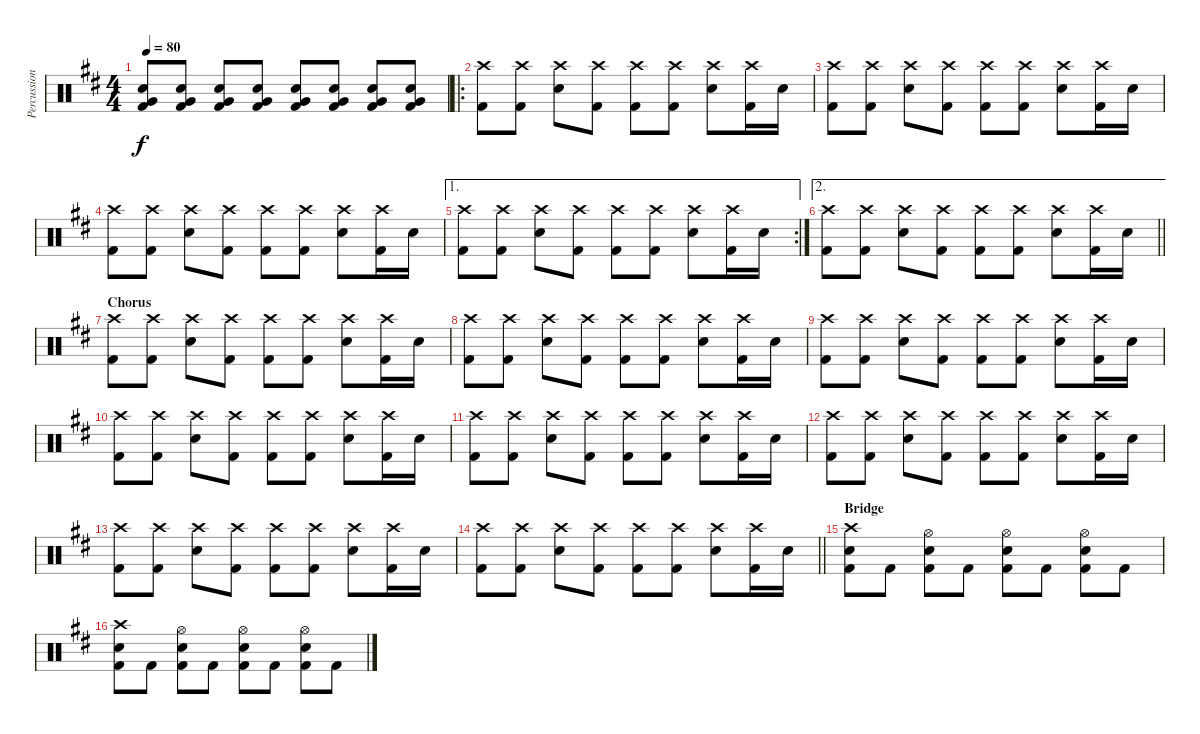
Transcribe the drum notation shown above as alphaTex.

\track ("Percussion" "Percussion") {instrument percussion}
\staff {score}
\articulation defaults
\ts (4 4)
\tempo 80
\clef neutral
\ks d
("Electric Snare (hit)" "Very Low Tom (hit)" "Kick (hit) 2").8{dy f} ("Electric Snare (hit)" "Very Low Tom (hit)" "Kick (hit) 2").8 ("Electric Snare (hit)" "Very Low Tom (hit)" "Kick (hit) 2").8 ("Electric Snare (hit)" "Very Low Tom (hit)" "Kick (hit) 2").8 ("Electric Snare (hit)" "Very Low Tom (hit)" "Kick (hit) 2").8 ("Electric Snare (hit)" "Very Low Tom (hit)" "Kick (hit) 2").8 ("Electric Snare (hit)" "Very Low Tom (hit)" "Kick (hit) 2").8 ("Electric Snare (hit)" "Very Low Tom (hit)" "Kick (hit) 2").8 |
\ro
("Crash high (hit)" "Kick (hit) 2").8 ("Crash high (hit)" "Kick (hit) 2").8 ("Crash high (hit)" "Electric Snare (hit)").8 ("Crash high (hit)" "Kick (hit) 2").8 ("Crash high (hit)" "Kick (hit) 2").8 ("Crash high (hit)" "Kick (hit) 2").8 ("Crash high (hit)" "Electric Snare (hit)").8 ("Crash high (hit)" "Kick (hit) 2").16 "Electric Snare (hit)".16 |
("Crash high (hit)" "Kick (hit) 2").8 ("Crash high (hit)" "Kick (hit) 2").8 ("Crash high (hit)" "Electric Snare (hit)").8 ("Crash high (hit)" "Kick (hit) 2").8 ("Crash high (hit)" "Kick (hit) 2").8 ("Crash high (hit)" "Kick (hit) 2").8 ("Crash high (hit)" "Electric Snare (hit)").8 ("Crash high (hit)" "Kick (hit) 2").16 "Electric Snare (hit)".16 |
("Crash high (hit)" "Kick (hit) 2").8 ("Crash high (hit)" "Kick (hit) 2").8 ("Crash high (hit)" "Electric Snare (hit)").8 ("Crash high (hit)" "Kick (hit) 2").8 ("Crash high (hit)" "Kick (hit) 2").8 ("Crash high (hit)" "Kick (hit) 2").8 ("Crash high (hit)" "Electric Snare (hit)").8 ("Crash high (hit)" "Kick (hit) 2").16 "Electric Snare (hit)".16 |
\ae 1
\rc 2
("Crash high (hit)" "Kick (hit) 2").8 ("Crash high (hit)" "Kick (hit) 2").8 ("Crash high (hit)" "Electric Snare (hit)").8 ("Crash high (hit)" "Kick (hit) 2").8 ("Crash high (hit)" "Kick (hit) 2").8 ("Crash high (hit)" "Kick (hit) 2").8 ("Crash high (hit)" "Electric Snare (hit)").8 ("Crash high (hit)" "Kick (hit) 2").16 "Electric Snare (hit)".16 |
\ae 2
\barLineRight lightlight
("Crash high (hit)" "Kick (hit) 2").8 ("Crash high (hit)" "Kick (hit) 2").8 ("Crash high (hit)" "Electric Snare (hit)").8 ("Crash high (hit)" "Kick (hit) 2").8 ("Crash high (hit)" "Kick (hit) 2").8 ("Crash high (hit)" "Kick (hit) 2").8 ("Crash high (hit)" "Electric Snare (hit)").8 ("Crash high (hit)" "Kick (hit) 2").16 "Electric Snare (hit)".16 |
\section ("" "Chorus")
("Crash high (hit)" "Kick (hit) 2").8 ("Crash high (hit)" "Kick (hit) 2").8 ("Crash high (hit)" "Electric Snare (hit)").8 ("Crash high (hit)" "Kick (hit) 2").8 ("Crash high (hit)" "Kick (hit) 2").8 ("Crash high (hit)" "Kick (hit) 2").8 ("Crash high (hit)" "Electric Snare (hit)").8 ("Crash high (hit)" "Kick (hit) 2").16 "Electric Snare (hit)".16 |
("Crash high (hit)" "Kick (hit) 2").8 ("Crash high (hit)" "Kick (hit) 2").8 ("Crash high (hit)" "Electric Snare (hit)").8 ("Crash high (hit)" "Kick (hit) 2").8 ("Crash high (hit)" "Kick (hit) 2").8 ("Crash high (hit)" "Kick (hit) 2").8 ("Crash high (hit)" "Electric Snare (hit)").8 ("Crash high (hit)" "Kick (hit) 2").16 "Electric Snare (hit)".16 |
("Crash high (hit)" "Kick (hit) 2").8 ("Crash high (hit)" "Kick (hit) 2").8 ("Crash high (hit)" "Electric Snare (hit)").8 ("Crash high (hit)" "Kick (hit) 2").8 ("Crash high (hit)" "Kick (hit) 2").8 ("Crash high (hit)" "Kick (hit) 2").8 ("Crash high (hit)" "Electric Snare (hit)").8 ("Crash high (hit)" "Kick (hit) 2").16 "Electric Snare (hit)".16 |
("Crash high (hit)" "Kick (hit) 2").8 ("Crash high (hit)" "Kick (hit) 2").8 ("Crash high (hit)" "Electric Snare (hit)").8 ("Crash high (hit)" "Kick (hit) 2").8 ("Crash high (hit)" "Kick (hit) 2").8 ("Crash high (hit)" "Kick (hit) 2").8 ("Crash high (hit)" "Electric Snare (hit)").8 ("Crash high (hit)" "Kick (hit) 2").16 "Electric Snare (hit)".16 |
("Crash high (hit)" "Kick (hit) 2").8 ("Crash high (hit)" "Kick (hit) 2").8 ("Crash high (hit)" "Electric Snare (hit)").8 ("Crash high (hit)" "Kick (hit) 2").8 ("Crash high (hit)" "Kick (hit) 2").8 ("Crash high (hit)" "Kick (hit) 2").8 ("Crash high (hit)" "Electric Snare (hit)").8 ("Crash high (hit)" "Kick (hit) 2").16 "Electric Snare (hit)".16 |
("Crash high (hit)" "Kick (hit) 2").8 ("Crash high (hit)" "Kick (hit) 2").8 ("Crash high (hit)" "Electric Snare (hit)").8 ("Crash high (hit)" "Kick (hit) 2").8 ("Crash high (hit)" "Kick (hit) 2").8 ("Crash high (hit)" "Kick (hit) 2").8 ("Crash high (hit)" "Electric Snare (hit)").8 ("Crash high (hit)" "Kick (hit) 2").16 "Electric Snare (hit)".16 |
("Crash high (hit)" "Kick (hit) 2").8 ("Crash high (hit)" "Kick (hit) 2").8 ("Crash high (hit)" "Electric Snare (hit)").8 ("Crash high (hit)" "Kick (hit) 2").8 ("Crash high (hit)" "Kick (hit) 2").8 ("Crash high (hit)" "Kick (hit) 2").8 ("Crash high (hit)" "Electric Snare (hit)").8 ("Crash high (hit)" "Kick (hit) 2").16 "Electric Snare (hit)".16 |
\barLineRight lightlight
("Crash high (hit)" "Kick (hit) 2").8 ("Crash high (hit)" "Kick (hit) 2").8 ("Crash high (hit)" "Electric Snare (hit)").8 ("Crash high (hit)" "Kick (hit) 2").8 ("Crash high (hit)" "Kick (hit) 2").8 ("Crash high (hit)" "Kick (hit) 2").8 ("Crash high (hit)" "Electric Snare (hit)").8 ("Crash high (hit)" "Kick (hit) 2").16 "Electric Snare (hit)".16 |
\section ("" "Bridge")
("Crash high (hit)" "Electric Snare (hit)" "Kick (hit) 2").8 "Kick (hit) 2".8 ("Hi-Hat (open)" "Electric Snare (hit)" "Kick (hit) 2").8 "Kick (hit) 2".8 ("Hi-Hat (open)" "Electric Snare (hit)" "Kick (hit) 2").8 "Kick (hit) 2".8 ("Hi-Hat (open)" "Electric Snare (hit)" "Kick (hit) 2").8 "Kick (hit) 2".8 |
("Crash high (hit)" "Electric Snare (hit)" "Kick (hit) 2").8 "Kick (hit) 2".8 ("Hi-Hat (open)" "Electric Snare (hit)" "Kick (hit) 2").8 "Kick (hit) 2".8 ("Hi-Hat (open)" "Electric Snare (hit)" "Kick (hit) 2").8 "Kick (hit) 2".8 ("Hi-Hat (open)" "Electric Snare (hit)" "Kick (hit) 2").8 "Kick (hit) 2".8
